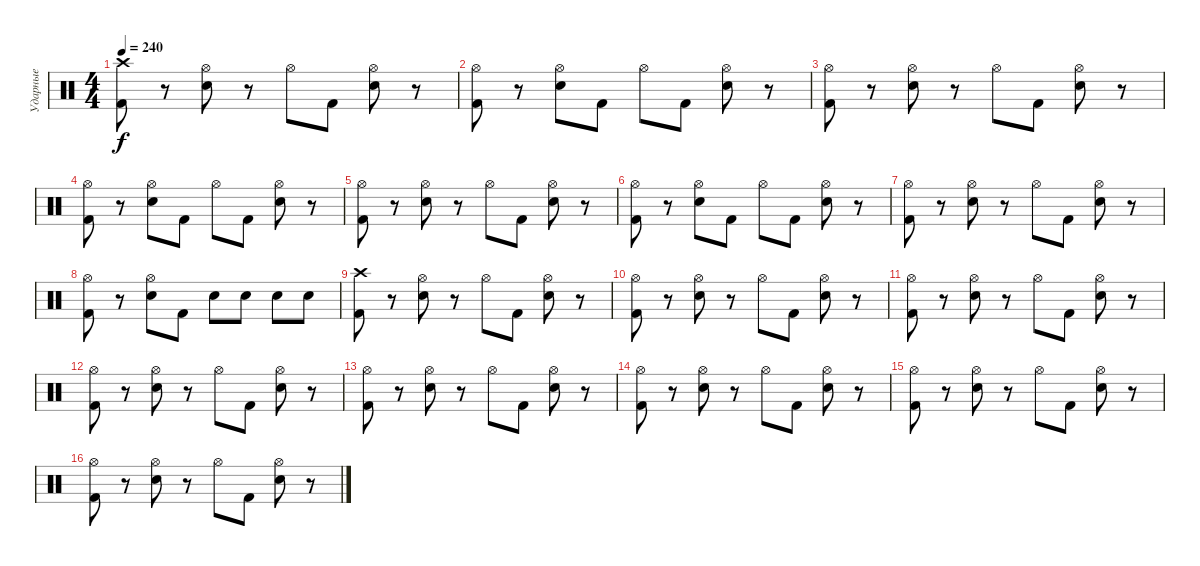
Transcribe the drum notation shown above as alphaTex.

\track ("Ударные" "Ударные") {instrument percussion}
\staff {score}
\articulation defaults
\ts (4 4)
\tempo 240
\clef neutral
\ks c
("Crash high (hit)" "Kick (hit) 2").8{dy f} r.8 ("Hi-Hat (open)" "Electric Snare (hit)").8 r.8 "Hi-Hat (open)".8 "Kick (hit) 2".8 ("Hi-Hat (open)" "Electric Snare (hit)").8 r.8 |
("Hi-Hat (open)" "Kick (hit) 2").8 r.8 ("Hi-Hat (open)" "Electric Snare (hit)").8 "Kick (hit) 2".8 "Hi-Hat (open)".8 "Kick (hit) 2".8 ("Hi-Hat (open)" "Electric Snare (hit)").8 r.8 |
("Hi-Hat (open)" "Kick (hit) 2").8 r.8 ("Hi-Hat (open)" "Electric Snare (hit)").8 r.8 "Hi-Hat (open)".8 "Kick (hit) 2".8 ("Hi-Hat (open)" "Electric Snare (hit)").8 r.8 |
("Hi-Hat (open)" "Kick (hit) 2").8 r.8 ("Hi-Hat (open)" "Electric Snare (hit)").8 "Kick (hit) 2".8 "Hi-Hat (open)".8 "Kick (hit) 2".8 ("Hi-Hat (open)" "Electric Snare (hit)").8 r.8 |
("Hi-Hat (open)" "Kick (hit) 2").8 r.8 ("Hi-Hat (open)" "Electric Snare (hit)").8 r.8 "Hi-Hat (open)".8 "Kick (hit) 2".8 ("Hi-Hat (open)" "Electric Snare (hit)").8 r.8 |
("Hi-Hat (open)" "Kick (hit) 2").8 r.8 ("Hi-Hat (open)" "Electric Snare (hit)").8 "Kick (hit) 2".8 "Hi-Hat (open)".8 "Kick (hit) 2".8 ("Hi-Hat (open)" "Electric Snare (hit)").8 r.8 |
("Hi-Hat (open)" "Kick (hit) 2").8 r.8 ("Hi-Hat (open)" "Electric Snare (hit)").8 r.8 "Hi-Hat (open)".8 "Kick (hit) 2".8 ("Hi-Hat (open)" "Electric Snare (hit)").8 r.8 |
("Hi-Hat (open)" "Kick (hit) 2").8 r.8 ("Hi-Hat (open)" "Electric Snare (hit)").8 "Kick (hit) 2".8 "Electric Snare (hit)".8 "Electric Snare (hit)".8 "Electric Snare (hit)".8 "Electric Snare (hit)".8 |
("Crash high (hit)" "Kick (hit) 2").8 r.8 ("Hi-Hat (open)" "Electric Snare (hit)").8 r.8 "Hi-Hat (open)".8 "Kick (hit) 2".8 ("Hi-Hat (open)" "Electric Snare (hit)").8 r.8 |
("Hi-Hat (open)" "Kick (hit) 2").8 r.8 ("Hi-Hat (open)" "Electric Snare (hit)").8 r.8 "Hi-Hat (open)".8 "Kick (hit) 2".8 ("Hi-Hat (open)" "Electric Snare (hit)").8 r.8 |
("Hi-Hat (open)" "Kick (hit) 2").8 r.8 ("Hi-Hat (open)" "Electric Snare (hit)").8 r.8 "Hi-Hat (open)".8 "Kick (hit) 2".8 ("Hi-Hat (open)" "Electric Snare (hit)").8 r.8 |
("Hi-Hat (open)" "Kick (hit) 2").8 r.8 ("Hi-Hat (open)" "Electric Snare (hit)").8 r.8 "Hi-Hat (open)".8 "Kick (hit) 2".8 ("Hi-Hat (open)" "Electric Snare (hit)").8 r.8 |
("Hi-Hat (open)" "Kick (hit) 2").8 r.8 ("Hi-Hat (open)" "Electric Snare (hit)").8 r.8 "Hi-Hat (open)".8 "Kick (hit) 2".8 ("Hi-Hat (open)" "Electric Snare (hit)").8 r.8 |
("Hi-Hat (open)" "Kick (hit) 2").8 r.8 ("Hi-Hat (open)" "Electric Snare (hit)").8 r.8 "Hi-Hat (open)".8 "Kick (hit) 2".8 ("Hi-Hat (open)" "Electric Snare (hit)").8 r.8 |
("Hi-Hat (open)" "Kick (hit) 2").8 r.8 ("Hi-Hat (open)" "Electric Snare (hit)").8 r.8 "Hi-Hat (open)".8 "Kick (hit) 2".8 ("Hi-Hat (open)" "Electric Snare (hit)").8 r.8 |
("Hi-Hat (open)" "Kick (hit) 2").8 r.8 ("Hi-Hat (open)" "Electric Snare (hit)").8 r.8 "Hi-Hat (open)".8 "Kick (hit) 2".8 ("Hi-Hat (open)" "Electric Snare (hit)").8 r.8
